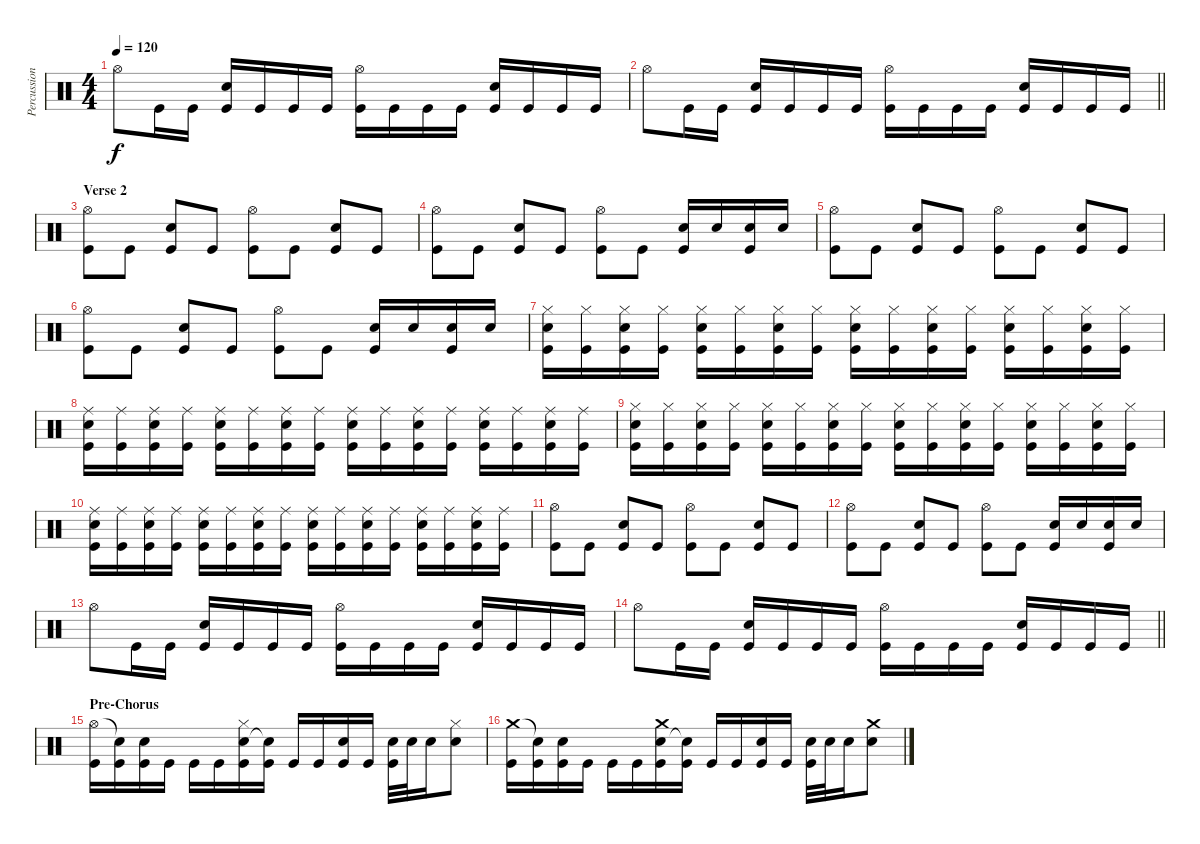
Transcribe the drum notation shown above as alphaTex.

\track ("Percussion" "Percussion") {instrument percussion}
\staff {score}
\articulation defaults
\ts (4 4)
\tempo 120
\clef neutral
\ks c "Hi-Hat (open)".8{dy f} "Kick (hit)".16 "Kick (hit)".16
("Snare (hit) 2" "Kick (hit)").16 "Kick (hit)".16 "Kick (hit)".16 "Kick (hit)".16 ("Hi-Hat (open)" "Kick (hit)").16 "Kick (hit)".16 "Kick (hit)".16 "Kick (hit)".16 ("Snare (hit) 2" "Kick (hit)").16 "Kick (hit)".16 "Kick (hit)".16 "Kick (hit)".16 |
\barLineRight lightlight "Hi-Hat (open)".8 "Kick (hit)".16 "Kick (hit)".16
("Snare (hit) 2" "Kick (hit)").16 "Kick (hit)".16 "Kick (hit)".16 "Kick (hit)".16 ("Hi-Hat (open)" "Kick (hit)").16 "Kick (hit)".16 "Kick (hit)".16 "Kick (hit)".16 ("Snare (hit) 2" "Kick (hit)").16 "Kick (hit)".16 "Kick (hit)".16 "Kick (hit)".16 |
\section ("" "Verse 2")
("Hi-Hat (open)" "Kick (hit)").8 "Kick (hit)".8 ("Snare (hit) 2" "Kick (hit)").8 "Kick (hit)".8 ("Hi-Hat (open)" "Kick (hit)").8 "Kick (hit)".8 ("Snare (hit) 2" "Kick (hit)").8 "Kick (hit)".8 |
("Hi-Hat (open)" "Kick (hit)").8 "Kick (hit)".8 ("Snare (hit) 2" "Kick (hit)").8 "Kick (hit)".8 ("Hi-Hat (open)" "Kick (hit)").8 "Kick (hit)".8 ("Snare (hit) 2" "Kick (hit)").16 "Snare (hit) 2".16 ("Snare (hit) 2" "Kick (hit)").16 "Snare (hit) 2".16 |
("Hi-Hat (open)" "Kick (hit)").8 "Kick (hit)".8 ("Snare (hit) 2" "Kick (hit)").8 "Kick (hit)".8 ("Hi-Hat (open)" "Kick (hit)").8 "Kick (hit)".8 ("Snare (hit) 2" "Kick (hit)").8 "Kick (hit)".8 |
("Hi-Hat (open)" "Kick (hit)").8 "Kick (hit)".8 ("Snare (hit) 2" "Kick (hit)").8 "Kick (hit)".8 ("Hi-Hat (open)" "Kick (hit)").8 "Kick (hit)".8 ("Snare (hit) 2" "Kick (hit)").16 "Snare (hit) 2".16 ("Snare (hit) 2" "Kick (hit)").16 "Snare (hit) 2".16 |
("Hi-Hat (closed)" "Snare (hit) 2" "Kick (hit)").16 ("Hi-Hat (closed)" "Kick (hit)").16 ("Hi-Hat (closed)" "Snare (hit) 2" "Kick (hit)").16 ("Hi-Hat (closed)" "Kick (hit)").16 ("Hi-Hat (closed)" "Snare (hit) 2" "Kick (hit)").16 ("Hi-Hat (closed)" "Kick (hit)").16 ("Hi-Hat (closed)" "Snare (hit) 2" "Kick (hit)").16 ("Hi-Hat (closed)" "Kick (hit)").16 ("Hi-Hat (closed)" "Snare (hit) 2" "Kick (hit)").16 ("Hi-Hat (closed)" "Kick (hit)").16 ("Hi-Hat (closed)" "Snare (hit) 2" "Kick (hit)").16 ("Hi-Hat (closed)" "Kick (hit)").16 ("Hi-Hat (closed)" "Snare (hit) 2" "Kick (hit)").16 ("Hi-Hat (closed)" "Kick (hit)").16 ("Hi-Hat (closed)" "Snare (hit) 2" "Kick (hit)").16 ("Hi-Hat (closed)" "Kick (hit)").16 |
("Ride (middle)" "Snare (hit) 2" "Kick (hit)").16 ("Ride (middle)" "Kick (hit)").16 ("Ride (middle)" "Snare (hit) 2" "Kick (hit)").16 ("Ride (middle)" "Kick (hit)").16 ("Ride (middle)" "Snare (hit) 2" "Kick (hit)").16 ("Ride (middle)" "Kick (hit)").16 ("Ride (middle)" "Snare (hit) 2" "Kick (hit)").16 ("Ride (middle)" "Kick (hit)").16 ("Ride (middle)" "Snare (hit) 2" "Kick (hit)").16 ("Ride (middle)" "Kick (hit)").16 ("Ride (middle)" "Snare (hit) 2" "Kick (hit)").16 ("Ride (middle)" "Kick (hit)").16 ("Ride (middle)" "Snare (hit) 2" "Kick (hit)").16 ("Ride (middle)" "Kick (hit)").16 ("Ride (middle)" "Snare (hit) 2" "Kick (hit)").16 ("Ride (middle)" "Kick (hit)").16 |
("Hi-Hat (closed)" "Snare (hit) 2" "Kick (hit)").16 ("Hi-Hat (closed)" "Kick (hit)").16 ("Hi-Hat (closed)" "Snare (hit) 2" "Kick (hit)").16 ("Hi-Hat (closed)" "Kick (hit)").16 ("Hi-Hat (closed)" "Snare (hit) 2" "Kick (hit)").16 ("Hi-Hat (closed)" "Kick (hit)").16 ("Hi-Hat (closed)" "Snare (hit) 2" "Kick (hit)").16 ("Hi-Hat (closed)" "Kick (hit)").16 ("Hi-Hat (closed)" "Snare (hit) 2" "Kick (hit)").16 ("Hi-Hat (closed)" "Kick (hit)").16 ("Hi-Hat (closed)" "Snare (hit) 2" "Kick (hit)").16 ("Hi-Hat (closed)" "Kick (hit)").16 ("Hi-Hat (closed)" "Snare (hit) 2" "Kick (hit)").16 ("Hi-Hat (closed)" "Kick (hit)").16 ("Hi-Hat (closed)" "Snare (hit) 2" "Kick (hit)").16 ("Hi-Hat (closed)" "Kick (hit)").16 |
("Ride (middle)" "Snare (hit) 2" "Kick (hit)").16 ("Ride (middle)" "Kick (hit)").16 ("Ride (middle)" "Snare (hit) 2" "Kick (hit)").16 ("Ride (middle)" "Kick (hit)").16 ("Ride (middle)" "Snare (hit) 2" "Kick (hit)").16 ("Ride (middle)" "Kick (hit)").16 ("Ride (middle)" "Snare (hit) 2" "Kick (hit)").16 ("Ride (middle)" "Kick (hit)").16 ("Ride (middle)" "Snare (hit) 2" "Kick (hit)").16 ("Ride (middle)" "Kick (hit)").16 ("Ride (middle)" "Snare (hit) 2" "Kick (hit)").16 ("Ride (middle)" "Kick (hit)").16 ("Ride (middle)" "Snare (hit) 2" "Kick (hit)").16 ("Ride (middle)" "Kick (hit)").16 ("Ride (middle)" "Snare (hit) 2" "Kick (hit)").16 ("Ride (middle)" "Kick (hit)").16 |
("Hi-Hat (open)" "Kick (hit)").8 "Kick (hit)".8 ("Snare (hit) 2" "Kick (hit)").8 "Kick (hit)".8 ("Hi-Hat (open)" "Kick (hit)").8 "Kick (hit)".8 ("Snare (hit) 2" "Kick (hit)").8 "Kick (hit)".8 |
("Hi-Hat (open)" "Kick (hit)").8 "Kick (hit)".8 ("Snare (hit) 2" "Kick (hit)").8 "Kick (hit)".8 ("Hi-Hat (open)" "Kick (hit)").8 "Kick (hit)".8 ("Snare (hit) 2" "Kick (hit)").16 "Snare (hit) 2".16 ("Snare (hit) 2" "Kick (hit)").16 "Snare (hit) 2".16 |
"Hi-Hat (open)".8 "Kick (hit)".16 "Kick (hit)".16 ("Snare (hit) 2" "Kick (hit)").16 "Kick (hit)".16 "Kick (hit)".16 "Kick (hit)".16 ("Hi-Hat (open)" "Kick (hit)").16 "Kick (hit)".16 "Kick (hit)".16 "Kick (hit)".16 ("Snare (hit) 2" "Kick (hit)").16 "Kick (hit)".16 "Kick (hit)".16 "Kick (hit)".16 |
\barLineRight lightlight "Hi-Hat (open)".8 "Kick (hit)".16 "Kick (hit)".16
("Snare (hit) 2" "Kick (hit)").16 "Kick (hit)".16 "Kick (hit)".16 "Kick (hit)".16 ("Hi-Hat (open)" "Kick (hit)").16 "Kick (hit)".16 "Kick (hit)".16 "Kick (hit)".16 ("Snare (hit) 2" "Kick (hit)").16 "Kick (hit)".16 "Kick (hit)".16 "Kick (hit)".16 |
\section ("" "Pre-Chorus")
("Hi-Hat (open)" "Kick (hit)").16 ("Snare (hit)"{t} "Kick (hit)").16 ("Snare (hit) 2" "Kick (hit)").16 "Kick (hit)".16 "Kick (hit)".16 "Kick (hit)".16 ("Snare (hit) 2" "Hi-Hat (closed)" "Kick (hit)").16 ("Snare (hit)"{t} "Kick (hit)").16 "Kick (hit)".16 "Kick (hit)".16 ("Snare (hit) 2" "Kick (hit)").16 "Kick (hit)".16 ("Snare (hit) 2" "Kick (hit)").32 "Snare (hit) 2".32 "Snare (hit) 2".16 ("Snare (hit) 2" "Hi-Hat (closed)").8 |
("Crash medium (hit)" "Kick (hit)").16 ("Snare (hit)"{t} "Kick (hit)").16 ("Snare (hit) 2" "Kick (hit)").16 "Kick (hit)".16 "Kick (hit)".16 "Kick (hit)".16 ("Snare (hit) 2" "Crash medium (hit)" "Kick (hit)").16 ("Snare (hit)"{t} "Kick (hit)").16 "Kick (hit)".16 "Kick (hit)".16 ("Snare (hit) 2" "Kick (hit)").16 "Kick (hit)".16 ("Snare (hit) 2" "Kick (hit)").32 "Snare (hit) 2".32 "Snare (hit) 2".16 ("Snare (hit) 2" "Crash medium (hit)").8
